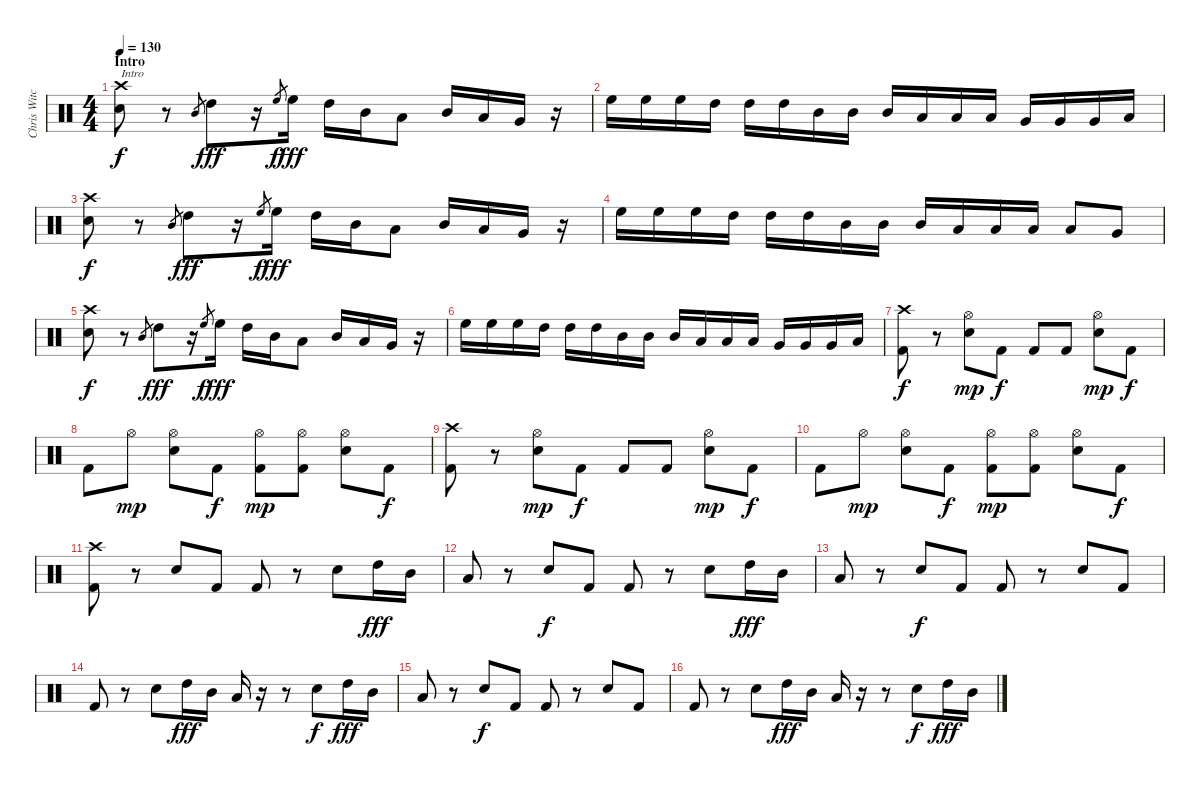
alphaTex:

\track ("Chris Witchhunter" "Chris Witc") {instrument percussion}
\staff {score}
\articulation defaults
\ts (4 4)
\section ("" "Intro")
\tempo 130
\clef neutral
\ks c
("Crash high (hit)" "Electric Snare (hit)").8{txt "Intro" dy f} r.8 "Mid Tom (hit)".8{gr} "High Tom (hit)".8{dy fff} r.16 "High Floor Tom (hit)".8{gr dy f} "High Floor Tom (hit)".16{dy fff} "High Tom (hit)".16 "Mid Tom (hit)".16 "Low Tom (hit)".8 "Mid Tom (hit)".16 "Low Tom (hit)".16 "Very Low Tom (hit)".16 r.16 |
"High Floor Tom (hit)".16 "High Floor Tom (hit)".16 "High Floor Tom (hit)".16 "High Tom (hit)".16 "High Tom (hit)".16 "High Tom (hit)".16 "Mid Tom (hit)".16 "Mid Tom (hit)".16 "Mid Tom (hit)".16 "Low Tom (hit)".16 "Low Tom (hit)".16 "Low Tom (hit)".16 "Very Low Tom (hit)".16 "Very Low Tom (hit)".16 "Very Low Tom (hit)".16 "Low Floor Tom (hit)".16 |
("Crash high (hit)" "Electric Snare (hit)").8{dy f} r.8 "Mid Tom (hit)".8{gr} "High Tom (hit)".8{dy fff} r.16 "High Floor Tom (hit)".8{gr dy f} "High Floor Tom (hit)".16{dy fff} "High Tom (hit)".16 "Mid Tom (hit)".16 "Low Tom (hit)".8 "Mid Tom (hit)".16 "Low Tom (hit)".16 "Very Low Tom (hit)".16 r.16 |
"High Floor Tom (hit)".16 "High Floor Tom (hit)".16 "High Floor Tom (hit)".16 "High Tom (hit)".16 "High Tom (hit)".16 "High Tom (hit)".16 "Mid Tom (hit)".16 "Mid Tom (hit)".16 "Mid Tom (hit)".16 "Low Tom (hit)".16 "Low Tom (hit)".16 "Low Tom (hit)".16 "Low Tom (hit)".8 "Very Low Tom (hit)".8 |
("Crash high (hit)" "Electric Snare (hit)").8{dy f} r.8 "Mid Tom (hit)".8{gr} "High Tom (hit)".8{dy fff} r.16 "High Floor Tom (hit)".8{gr dy f} "High Floor Tom (hit)".16{dy fff} "High Tom (hit)".16 "Mid Tom (hit)".16 "Low Tom (hit)".8 "Mid Tom (hit)".16 "Low Tom (hit)".16 "Very Low Tom (hit)".16 r.16 |
"High Floor Tom (hit)".16 "High Floor Tom (hit)".16 "High Floor Tom (hit)".16 "High Tom (hit)".16 "High Tom (hit)".16 "High Tom (hit)".16 "Mid Tom (hit)".16 "Mid Tom (hit)".16 "Mid Tom (hit)".16 "Low Tom (hit)".16 "Low Tom (hit)".16 "Low Tom (hit)".16 "Very Low Tom (hit)".16 "Very Low Tom (hit)".16 "Very Low Tom (hit)".16 "Low Floor Tom (hit)".16 |
("Crash high (hit)" "Kick (hit) 2").8{dy f} r.8 ("Hi-Hat (open)" "Electric Snare (hit)").8{dy mp} "Kick (hit) 2".8{dy f} "Kick (hit) 2".8 "Kick (hit) 2".8 ("Hi-Hat (open)" "Electric Snare (hit)").8{dy mp} "Kick (hit) 2".8{dy f} |
"Kick (hit) 2".8 "Hi-Hat (open)".8{dy mp} ("Hi-Hat (open)" "Electric Snare (hit)").8 "Kick (hit) 2".8{dy f} ("Hi-Hat (open)" "Kick (hit) 2").8{dy mp} ("Hi-Hat (open)" "Kick (hit) 2").8 ("Hi-Hat (open)" "Electric Snare (hit)").8 "Kick (hit) 2".8{dy f} |
("Crash high (hit)" "Kick (hit) 2").8 r.8 ("Hi-Hat (open)" "Electric Snare (hit)").8{dy mp} "Kick (hit) 2".8{dy f} "Kick (hit) 2".8 "Kick (hit) 2".8 ("Hi-Hat (open)" "Electric Snare (hit)").8{dy mp} "Kick (hit) 2".8{dy f} |
"Kick (hit) 2".8 "Hi-Hat (open)".8{dy mp} ("Hi-Hat (open)" "Electric Snare (hit)").8 "Kick (hit) 2".8{dy f} ("Hi-Hat (open)" "Kick (hit) 2").8{dy mp} ("Hi-Hat (open)" "Kick (hit) 2").8 ("Hi-Hat (open)" "Electric Snare (hit)").8 "Kick (hit) 2".8{dy f} |
("Crash high (hit)" "Kick (hit) 2").8 r.8 "Electric Snare (hit)".8 "Kick (hit) 2".8 "Kick (hit) 2".8 r.8 "Electric Snare (hit)".8 "High Tom (hit)".16{dy fff} "Mid Tom (hit)".16 |
"Low Tom (hit)".8 r.8 "Electric Snare (hit)".8{dy f} "Kick (hit) 2".8 "Kick (hit) 2".8 r.8 "Electric Snare (hit)".8 "High Tom (hit)".16{dy fff} "Mid Tom (hit)".16 |
"Low Tom (hit)".8 r.8 "Electric Snare (hit)".8{dy f} "Kick (hit) 2".8 "Kick (hit) 2".8 r.8 "Electric Snare (hit)".8 "Kick (hit) 2".8 |
"Kick (hit) 2".8 r.8 "Electric Snare (hit)".8 "High Tom (hit)".16{dy fff} "Mid Tom (hit)".16 "Low Tom (hit)".16 r.16 r.8 "Electric Snare (hit)".8{dy f} "High Tom (hit)".16{dy fff} "Mid Tom (hit)".16 |
"Low Tom (hit)".8 r.8 "Electric Snare (hit)".8{dy f} "Kick (hit) 2".8 "Kick (hit) 2".8 r.8 "Electric Snare (hit)".8 "Kick (hit) 2".8 |
"Kick (hit) 2".8 r.8 "Electric Snare (hit)".8 "High Tom (hit)".16{dy fff} "Mid Tom (hit)".16 "Low Tom (hit)".16 r.16 r.8 "Electric Snare (hit)".8{dy f} "High Tom (hit)".16{dy fff} "Mid Tom (hit)".16
